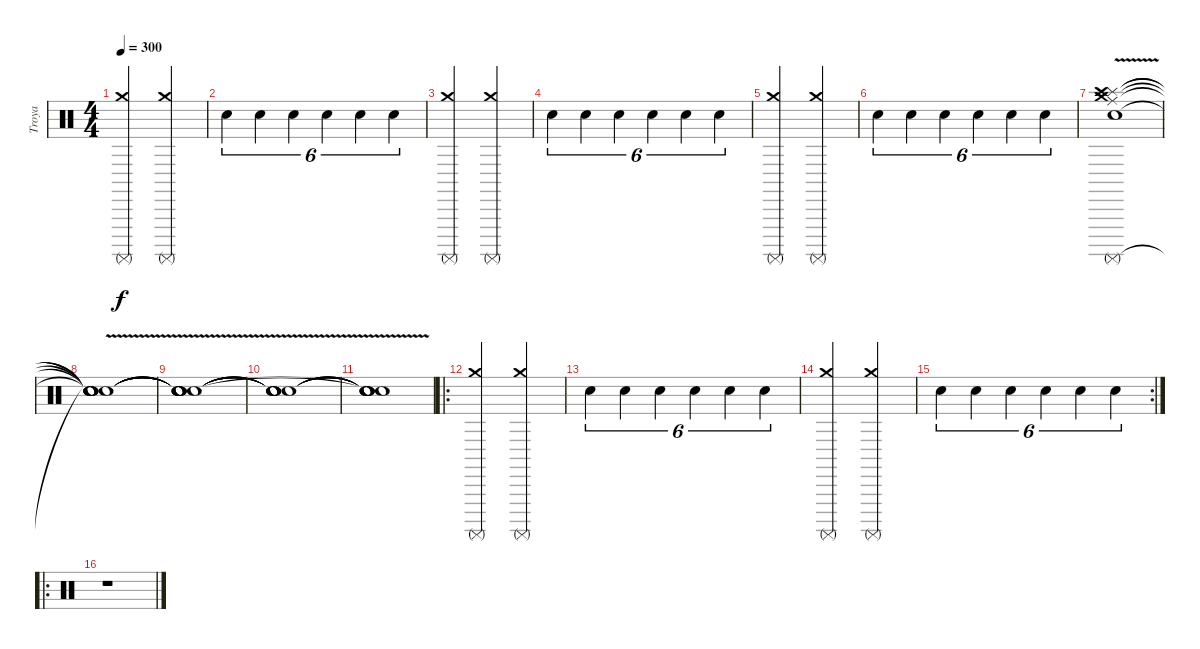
\track ("Troya" "Troya") {instrument percussion}
\staff {score}
\articulation defaults
\ts (4 4)
\tempo 300
\clef neutral
\ks c
("Crash medium (hit)" "Surdo (mute)").2{dy f} ("Crash medium (hit)" "Surdo (mute)").2 |
"Electric Snare (hit)".4{tu (6 4)} "Electric Snare (hit)".4{tu (6 4)} "Electric Snare (hit)".4{tu (6 4)} "Electric Snare (hit)".4{tu (6 4)} "Electric Snare (hit)".4{tu (6 4)} "Electric Snare (hit)".4{tu (6 4)} |
("Crash medium (hit)" "Surdo (mute)").2 ("Crash medium (hit)" "Surdo (mute)").2 |
"Electric Snare (hit)".4{tu (6 4)} "Electric Snare (hit)".4{tu (6 4)} "Electric Snare (hit)".4{tu (6 4)} "Electric Snare (hit)".4{tu (6 4)} "Electric Snare (hit)".4{tu (6 4)} "Electric Snare (hit)".4{tu (6 4)} |
("Crash medium (hit)" "Surdo (mute)").2 ("Crash medium (hit)" "Surdo (mute)").2 |
"Electric Snare (hit)".4{tu (6 4)} "Electric Snare (hit)".4{tu (6 4)} "Electric Snare (hit)".4{tu (6 4)} "Electric Snare (hit)".4{tu (6 4)} "Electric Snare (hit)".4{tu (6 4)} "Electric Snare (hit)".4{tu (6 4)} |
("Surdo (mute)"{v} "Electric Snare (hit)"{v} "Crash medium (hit)"{v} "Splash (hit)"{v} "Crash high (hit)"{v} "Ride (middle)"{v}).1 |
("Snare (hit)"{v t} "Snare (hit)"{v t} "Snare (hit)"{v t} "Snare (hit)"{v t} "Snare (hit)"{v t} "Snare (hit)"{v t}).1 |
("Snare (hit)"{v t} "Snare (hit)"{v t} "Snare (hit)"{v t} "Snare (hit)"{v t} "Snare (hit)"{v t} "Snare (hit)"{v t}).1 |
("Snare (hit)"{v t} "Snare (hit)"{v t} "Snare (hit)"{v t} "Snare (hit)"{v t} "Snare (hit)"{v t}).1 |
("Snare (hit)"{v t} "Snare (hit)"{v t} "Snare (hit)"{v t} "Snare (hit)"{v t} "Snare (hit)"{v t} "Snare (hit)"{v t}).1 |
\ro
("Crash medium (hit)" "Surdo (mute)").2 ("Crash medium (hit)" "Surdo (mute)").2 |
"Electric Snare (hit)".4{tu (6 4)} "Electric Snare (hit)".4{tu (6 4)} "Electric Snare (hit)".4{tu (6 4)} "Electric Snare (hit)".4{tu (6 4)} "Electric Snare (hit)".4{tu (6 4)} "Electric Snare (hit)".4{tu (6 4)} |
("Crash medium (hit)" "Surdo (mute)").2 ("Crash medium (hit)" "Surdo (mute)").2 |
\rc 2 "Electric Snare (hit)".4{tu (6 4)} "Electric Snare (hit)".4{tu (6 4)} "Electric Snare (hit)".4{tu (6 4)} "Electric Snare (hit)".4{tu (6 4)} "Electric Snare (hit)".4{tu (6 4)} "Electric Snare (hit)".4{tu (6 4)}
|
\ro
r.1
